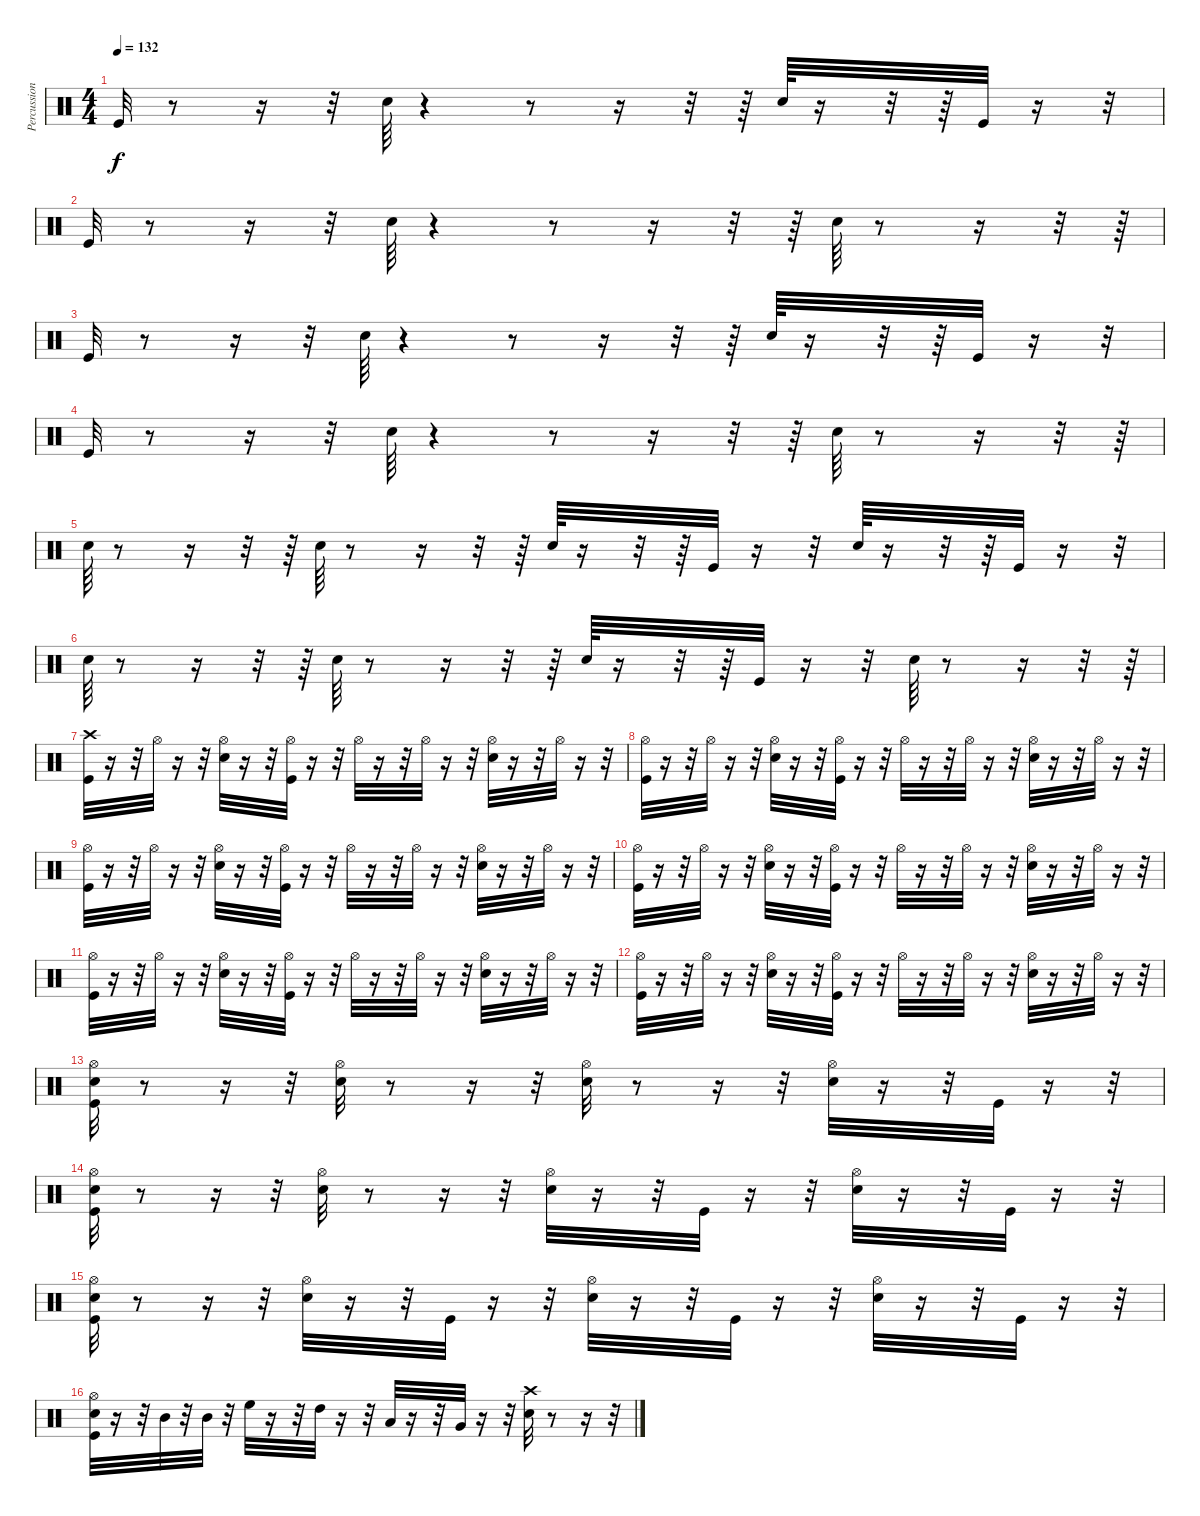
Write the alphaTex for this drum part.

\track ("Percussions" "Percussion") {instrument percussion}
\staff {score}
\articulation defaults
\ts (4 4)
\tempo 132
\clef neutral
\ks c "Kick (hit)".32{dy f}
r.8 r.16 r.32 "Electric Snare (hit)".64 r.4 r.8 r.16 r.32 r.64 "Electric Snare (hit)".64 r.16 r.32 r.64 "Kick (hit)".32 r.16 r.32 |
"Kick (hit)".32 r.8 r.16 r.32 "Electric Snare (hit)".64 r.4 r.8 r.16 r.32 r.64 "Electric Snare (hit)".64 r.8 r.16 r.32 r.64 |
"Kick (hit)".32 r.8 r.16 r.32 "Electric Snare (hit)".64 r.4 r.8 r.16 r.32 r.64 "Electric Snare (hit)".64 r.16 r.32 r.64 "Kick (hit)".32 r.16 r.32 |
"Kick (hit)".32 r.8 r.16 r.32 "Electric Snare (hit)".64 r.4 r.8 r.16 r.32 r.64 "Electric Snare (hit)".64 r.8 r.16 r.32 r.64 |
"Electric Snare (hit)".64 r.8 r.16 r.32 r.64 "Electric Snare (hit)".64 r.8 r.16 r.32 r.64 "Electric Snare (hit)".64 r.16 r.32 r.64 "Kick (hit)".32 r.16 r.32 "Electric Snare (hit)".64 r.16 r.32 r.64 "Kick (hit)".32 r.16 r.32 |
"Electric Snare (hit)".64 r.8 r.16 r.32 r.64 "Electric Snare (hit)".64 r.8 r.16 r.32 r.64 "Electric Snare (hit)".64 r.16 r.32 r.64 "Kick (hit)".32 r.16 r.32 "Electric Snare (hit)".64 r.8 r.16 r.32 r.64 |
("Crash high (hit)" "Kick (hit)").32 r.16 r.32 "Hi-Hat (open)".32 r.16 r.32 ("Hi-Hat (open)" "Electric Snare (hit)").32 r.16 r.32 ("Hi-Hat (open)" "Kick (hit)").32 r.16 r.32 "Hi-Hat (open)".32 r.16 r.32 "Hi-Hat (open)".32 r.16 r.32 ("Hi-Hat (open)" "Electric Snare (hit)").32 r.16 r.32 "Hi-Hat (open)".32 r.16 r.32 |
("Hi-Hat (open)" "Kick (hit)").32 r.16 r.32 "Hi-Hat (open)".32 r.16 r.32 ("Hi-Hat (open)" "Electric Snare (hit)").32 r.16 r.32 ("Hi-Hat (open)" "Kick (hit)").32 r.16 r.32 "Hi-Hat (open)".32 r.16 r.32 "Hi-Hat (open)".32 r.16 r.32 ("Hi-Hat (open)" "Electric Snare (hit)").32 r.16 r.32 "Hi-Hat (open)".32 r.16 r.32 |
("Hi-Hat (open)" "Kick (hit)").32 r.16 r.32 "Hi-Hat (open)".32 r.16 r.32 ("Hi-Hat (open)" "Electric Snare (hit)").32 r.16 r.32 ("Hi-Hat (open)" "Kick (hit)").32 r.16 r.32 "Hi-Hat (open)".32 r.16 r.32 "Hi-Hat (open)".32 r.16 r.32 ("Hi-Hat (open)" "Electric Snare (hit)").32 r.16 r.32 "Hi-Hat (open)".32 r.16 r.32 |
("Hi-Hat (open)" "Kick (hit)").32 r.16 r.32 "Hi-Hat (open)".32 r.16 r.32 ("Hi-Hat (open)" "Electric Snare (hit)").32 r.16 r.32 ("Hi-Hat (open)" "Kick (hit)").32 r.16 r.32 "Hi-Hat (open)".32 r.16 r.32 "Hi-Hat (open)".32 r.16 r.32 ("Hi-Hat (open)" "Electric Snare (hit)").32 r.16 r.32 "Hi-Hat (open)".32 r.16 r.32 |
("Hi-Hat (open)" "Kick (hit)").32 r.16 r.32 "Hi-Hat (open)".32 r.16 r.32 ("Hi-Hat (open)" "Electric Snare (hit)").32 r.16 r.32 ("Hi-Hat (open)" "Kick (hit)").32 r.16 r.32 "Hi-Hat (open)".32 r.16 r.32 "Hi-Hat (open)".32 r.16 r.32 ("Hi-Hat (open)" "Electric Snare (hit)").32 r.16 r.32 "Hi-Hat (open)".32 r.16 r.32 |
("Hi-Hat (open)" "Kick (hit)").32 r.16 r.32 "Hi-Hat (open)".32 r.16 r.32 ("Hi-Hat (open)" "Electric Snare (hit)").32 r.16 r.32 ("Hi-Hat (open)" "Kick (hit)").32 r.16 r.32 "Hi-Hat (open)".32 r.16 r.32 "Hi-Hat (open)".32 r.16 r.32 ("Hi-Hat (open)" "Electric Snare (hit)").32 r.16 r.32 "Hi-Hat (open)".32 r.16 r.32 |
("Hi-Hat (open)" "Kick (hit)" "Electric Snare (hit)").32 r.8 r.16 r.32 ("Hi-Hat (open)" "Electric Snare (hit)").32 r.8 r.16 r.32 ("Hi-Hat (open)" "Electric Snare (hit)").32 r.8 r.16 r.32 ("Hi-Hat (open)" "Electric Snare (hit)").32 r.16 r.32 "Kick (hit)".32 r.16 r.32 |
("Hi-Hat (open)" "Kick (hit)" "Electric Snare (hit)").32 r.8 r.16 r.32 ("Hi-Hat (open)" "Electric Snare (hit)").32 r.8 r.16 r.32 ("Hi-Hat (open)" "Electric Snare (hit)").32 r.16 r.32 "Kick (hit)".32 r.16 r.32 ("Hi-Hat (open)" "Electric Snare (hit)").32 r.16 r.32 "Kick (hit)".32 r.16 r.32 |
("Kick (hit)" "Electric Snare (hit)" "Hi-Hat (open)").32 r.8 r.16 r.32 ("Electric Snare (hit)" "Hi-Hat (open)").32 r.16 r.32 "Kick (hit)".32 r.16 r.32 ("Electric Snare (hit)" "Hi-Hat (open)").32 r.16 r.32 "Kick (hit)".32 r.16 r.32 ("Hi-Hat (open)" "Electric Snare (hit)").32 r.16 r.32 "Kick (hit)".32 r.16 r.32 |
("Kick (hit)" "Electric Snare (hit)" "Hi-Hat (open)").32 r.16 r.32 "Mid Tom (hit)".32 r.32 "Mid Tom (hit)".32 r.32 "High Floor Tom (hit)".32 r.16 r.32 "High Tom (hit)".32 r.16 r.32 "Low Tom (hit)".32 r.16 r.32 "Very Low Tom (hit)".32 r.16 r.32 ("Crash high (hit)" "Electric Snare (hit)").32 r.8 r.16 r.32
